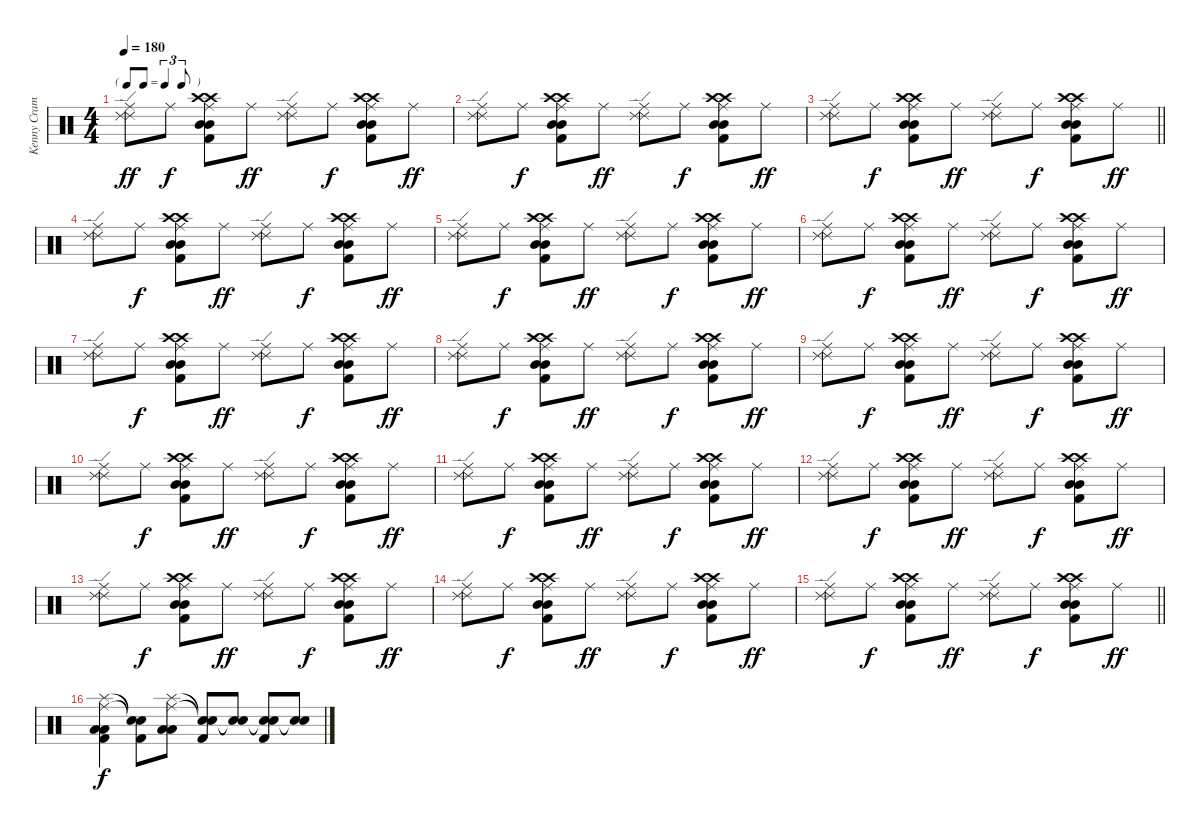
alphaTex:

\track ("Kenny Cramme" "Kenny Cram") {instrument percussion}
\staff {score}
\articulation defaults
\ts (4 4)
\tf triplet8th
\tempo 180
\clef neutral
\ks c
("Ride (middle)" "Ride (edge) 2" "Ride (edge) 2").8{dy ff} "Ride (middle)".8{dy f} ("Ride (middle)" "Mid Tom (hit)" "Crash high (hit)" "Crash high (hit)" "Kick (hit) 2" "Mid Tom (hit)").8 "Ride (middle)".8{dy ff} ("Ride (middle)" "Ride (edge) 2" "Ride (edge) 2").8 "Ride (middle)".8{dy f} ("Ride (middle)" "Mid Tom (hit)" "Crash high (hit)" "Crash high (hit)" "Kick (hit) 2" "Mid Tom (hit)").8 "Ride (middle)".8{dy ff} |
("Ride (middle)" "Ride (edge) 2" "Ride (edge) 2").8 "Ride (middle)".8{dy f} ("Ride (middle)" "Mid Tom (hit)" "Crash high (hit)" "Crash high (hit)" "Kick (hit) 2" "Mid Tom (hit)").8 "Ride (middle)".8{dy ff} ("Ride (middle)" "Ride (edge) 2" "Ride (edge) 2").8 "Ride (middle)".8{dy f} ("Ride (middle)" "Mid Tom (hit)" "Crash high (hit)" "Crash high (hit)" "Kick (hit) 2" "Mid Tom (hit)").8 "Ride (middle)".8{dy ff} |
\barLineRight lightlight
("Ride (middle)" "Ride (edge) 2" "Ride (edge) 2").8 "Ride (middle)".8{dy f} ("Ride (middle)" "Mid Tom (hit)" "Crash high (hit)" "Crash high (hit)" "Kick (hit) 2" "Mid Tom (hit)").8 "Ride (middle)".8{dy ff} ("Ride (middle)" "Ride (edge) 2" "Ride (edge) 2").8 "Ride (middle)".8{dy f} ("Ride (middle)" "Mid Tom (hit)" "Crash high (hit)" "Crash high (hit)" "Kick (hit) 2" "Mid Tom (hit)").8 "Ride (middle)".8{dy ff} |
("Ride (middle)" "Ride (edge) 2" "Ride (edge) 2").8 "Ride (middle)".8{dy f} ("Ride (middle)" "Mid Tom (hit)" "Crash high (hit)" "Crash high (hit)" "Kick (hit) 2" "Mid Tom (hit)").8 "Ride (middle)".8{dy ff} ("Ride (middle)" "Ride (edge) 2" "Ride (edge) 2").8 "Ride (middle)".8{dy f} ("Ride (middle)" "Mid Tom (hit)" "Crash high (hit)" "Crash high (hit)" "Kick (hit) 2" "Mid Tom (hit)").8 "Ride (middle)".8{dy ff} |
("Ride (middle)" "Ride (edge) 2" "Ride (edge) 2").8 "Ride (middle)".8{dy f} ("Ride (middle)" "Mid Tom (hit)" "Crash high (hit)" "Crash high (hit)" "Kick (hit) 2" "Mid Tom (hit)").8 "Ride (middle)".8{dy ff} ("Ride (middle)" "Ride (edge) 2" "Ride (edge) 2").8 "Ride (middle)".8{dy f} ("Ride (middle)" "Mid Tom (hit)" "Crash high (hit)" "Crash high (hit)" "Kick (hit) 2" "Mid Tom (hit)").8 "Ride (middle)".8{dy ff} |
("Ride (middle)" "Ride (edge) 2" "Ride (edge) 2").8 "Ride (middle)".8{dy f} ("Ride (middle)" "Mid Tom (hit)" "Crash high (hit)" "Crash high (hit)" "Kick (hit) 2" "Mid Tom (hit)").8 "Ride (middle)".8{dy ff} ("Ride (middle)" "Ride (edge) 2" "Ride (edge) 2").8 "Ride (middle)".8{dy f} ("Ride (middle)" "Mid Tom (hit)" "Crash high (hit)" "Crash high (hit)" "Kick (hit) 2" "Mid Tom (hit)").8 "Ride (middle)".8{dy ff} |
("Ride (middle)" "Ride (edge) 2" "Ride (edge) 2").8 "Ride (middle)".8{dy f} ("Ride (middle)" "Mid Tom (hit)" "Crash high (hit)" "Crash high (hit)" "Kick (hit) 2" "Mid Tom (hit)").8 "Ride (middle)".8{dy ff} ("Ride (middle)" "Ride (edge) 2" "Ride (edge) 2").8 "Ride (middle)".8{dy f} ("Ride (middle)" "Mid Tom (hit)" "Crash high (hit)" "Crash high (hit)" "Kick (hit) 2" "Mid Tom (hit)").8 "Ride (middle)".8{dy ff} |
("Ride (middle)" "Ride (edge) 2" "Ride (edge) 2").8 "Ride (middle)".8{dy f} ("Ride (middle)" "Mid Tom (hit)" "Crash high (hit)" "Crash high (hit)" "Kick (hit) 2" "Mid Tom (hit)").8 "Ride (middle)".8{dy ff} ("Ride (middle)" "Ride (edge) 2" "Ride (edge) 2").8 "Ride (middle)".8{dy f} ("Ride (middle)" "Mid Tom (hit)" "Crash high (hit)" "Crash high (hit)" "Kick (hit) 2" "Mid Tom (hit)").8 "Ride (middle)".8{dy ff} |
("Ride (middle)" "Ride (edge) 2" "Ride (edge) 2").8 "Ride (middle)".8{dy f} ("Ride (middle)" "Mid Tom (hit)" "Crash high (hit)" "Crash high (hit)" "Kick (hit) 2" "Mid Tom (hit)").8 "Ride (middle)".8{dy ff} ("Ride (middle)" "Ride (edge) 2" "Ride (edge) 2").8 "Ride (middle)".8{dy f} ("Ride (middle)" "Mid Tom (hit)" "Crash high (hit)" "Crash high (hit)" "Kick (hit) 2" "Mid Tom (hit)").8 "Ride (middle)".8{dy ff} |
("Ride (middle)" "Ride (edge) 2" "Ride (edge) 2").8 "Ride (middle)".8{dy f} ("Ride (middle)" "Mid Tom (hit)" "Crash high (hit)" "Crash high (hit)" "Kick (hit) 2" "Mid Tom (hit)").8 "Ride (middle)".8{dy ff} ("Ride (middle)" "Ride (edge) 2" "Ride (edge) 2").8 "Ride (middle)".8{dy f} ("Ride (middle)" "Mid Tom (hit)" "Crash high (hit)" "Crash high (hit)" "Kick (hit) 2" "Mid Tom (hit)").8 "Ride (middle)".8{dy ff} |
("Ride (middle)" "Ride (edge) 2" "Ride (edge) 2").8 "Ride (middle)".8{dy f} ("Ride (middle)" "Mid Tom (hit)" "Crash high (hit)" "Crash high (hit)" "Kick (hit) 2" "Mid Tom (hit)").8 "Ride (middle)".8{dy ff} ("Ride (middle)" "Ride (edge) 2" "Ride (edge) 2").8 "Ride (middle)".8{dy f} ("Ride (middle)" "Mid Tom (hit)" "Crash high (hit)" "Crash high (hit)" "Kick (hit) 2" "Mid Tom (hit)").8 "Ride (middle)".8{dy ff} |
("Ride (middle)" "Ride (edge) 2" "Ride (edge) 2").8 "Ride (middle)".8{dy f} ("Ride (middle)" "Mid Tom (hit)" "Crash high (hit)" "Crash high (hit)" "Kick (hit) 2" "Mid Tom (hit)").8 "Ride (middle)".8{dy ff} ("Ride (middle)" "Ride (edge) 2" "Ride (edge) 2").8 "Ride (middle)".8{dy f} ("Ride (middle)" "Mid Tom (hit)" "Crash high (hit)" "Crash high (hit)" "Kick (hit) 2" "Mid Tom (hit)").8 "Ride (middle)".8{dy ff} |
("Ride (middle)" "Ride (edge) 2" "Ride (edge) 2").8 "Ride (middle)".8{dy f} ("Ride (middle)" "Mid Tom (hit)" "Crash high (hit)" "Crash high (hit)" "Kick (hit) 2" "Mid Tom (hit)").8 "Ride (middle)".8{dy ff} ("Ride (middle)" "Ride (edge) 2" "Ride (edge) 2").8 "Ride (middle)".8{dy f} ("Ride (middle)" "Mid Tom (hit)" "Crash high (hit)" "Crash high (hit)" "Kick (hit) 2" "Mid Tom (hit)").8 "Ride (middle)".8{dy ff} |
("Ride (middle)" "Ride (edge) 2" "Ride (edge) 2").8 "Ride (middle)".8{dy f} ("Ride (middle)" "Mid Tom (hit)" "Crash high (hit)" "Crash high (hit)" "Kick (hit) 2" "Mid Tom (hit)").8 "Ride (middle)".8{dy ff} ("Ride (middle)" "Ride (edge) 2" "Ride (edge) 2").8 "Ride (middle)".8{dy f} ("Ride (middle)" "Mid Tom (hit)" "Crash high (hit)" "Crash high (hit)" "Kick (hit) 2" "Mid Tom (hit)").8 "Ride (middle)".8{dy ff} |
\barLineRight lightlight
("Ride (middle)" "Ride (edge) 2" "Ride (edge) 2").8 "Ride (middle)".8{dy f} ("Ride (middle)" "Mid Tom (hit)" "Crash high (hit)" "Crash high (hit)" "Kick (hit) 2" "Mid Tom (hit)").8 "Ride (middle)".8{dy ff} ("Ride (middle)" "Ride (edge) 2" "Ride (edge) 2").8 "Ride (middle)".8{dy f} ("Ride (middle)" "Mid Tom (hit)" "Crash high (hit)" "Crash high (hit)" "Kick (hit) 2" "Mid Tom (hit)").8 "Ride (middle)".8{dy ff} |
("Ride (middle)" "Splash (hit)" "Low Floor Tom (hit)" "Low Floor Tom (hit)" "Kick (hit) 2").4{dy f} ("Snare (hit)"{t} "Snare (hit)"{t} "Kick (hit) 2").8 ("Ride (middle)" "Splash (hit)" "Low Floor Tom (hit)" "Low Floor Tom (hit)").8 ("Snare (hit)"{t} "Snare (hit)"{t} "Kick (hit) 2").8 ("Snare (hit)"{t} "Snare (hit)"{t}).8 ("Snare (hit)"{t} "Snare (hit)"{t} "Kick (hit) 2").8 ("Snare (hit)"{t} "Snare (hit)"{t}).8
